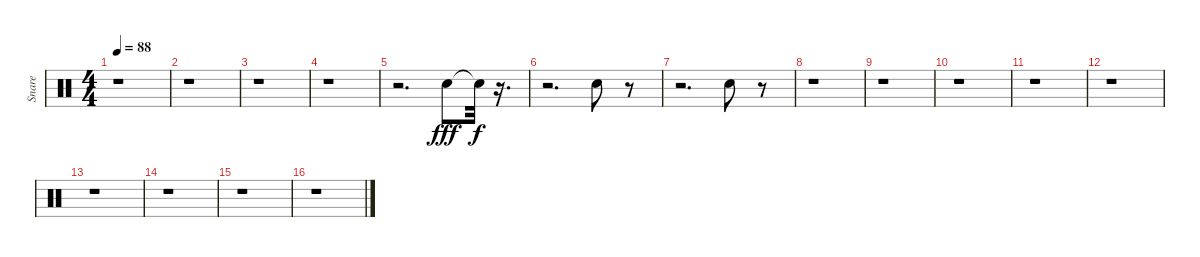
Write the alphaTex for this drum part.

\track ("Snare" "Snare") {instrument percussion}
\staff {score}
\articulation defaults
\ts (4 4)
\tempo 88
\clef neutral
\ks c
r.1{dy fff} |
r.1 |
r.1 |
r.1 |
r.2{d} "Snare (hit) 2".8 "Snare (hit)"{t}.32{dy f} r.16{d} |
r.2{d} "Snare (hit) 2".8 r.8 |
r.2{d} "Snare (hit) 2".8 r.8 |
r.1 |
r.1 |
r.1 |
r.1 |
r.1 |
r.1 |
r.1 |
r.1 |
r.1
